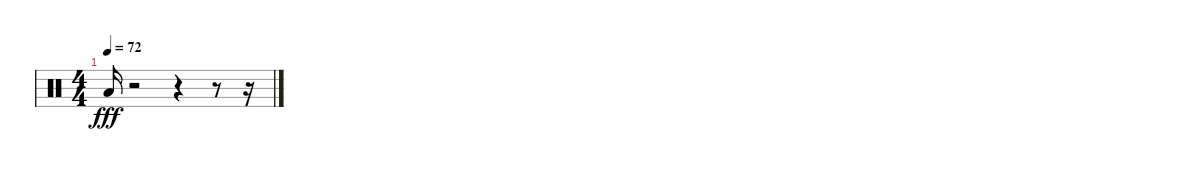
\track "" {instrument percussion}
\staff {score}
\articulation defaults
\ts (4 4)
\tempo 72
\clef neutral
\ks c "Low Floor Tom (hit)".16{dy fff}
r.2 r.4 r.8 r.16
